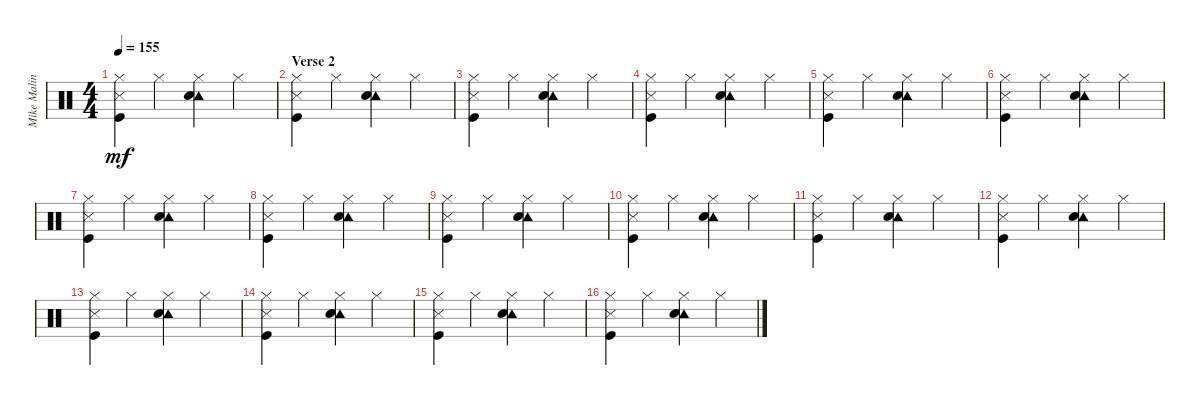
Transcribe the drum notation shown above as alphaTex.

\track ("Mike Malinin - Drums" "Mike Malin") {instrument percussion}
\staff {score}
\articulation defaults
\ts (4 4)
\tempo 155
\clef neutral
\ks c
("Hi-Hat (closed)" "Metronome (hit)" "Kick (hit)").4{dy mf} "Hi-Hat (closed)".4 ("Tambourine (hit)" "Hi-Hat (closed)" "Electric Snare (hit)").4 "Hi-Hat (closed)".4 |
\section ("" "Verse 2")
("Hi-Hat (closed)" "Metronome (hit)" "Kick (hit)").4 "Hi-Hat (closed)".4 ("Tambourine (hit)" "Hi-Hat (closed)" "Electric Snare (hit)").4 "Hi-Hat (closed)".4 |
("Hi-Hat (closed)" "Metronome (hit)" "Kick (hit)").4 "Hi-Hat (closed)".4 ("Tambourine (hit)" "Hi-Hat (closed)" "Electric Snare (hit)").4 "Hi-Hat (closed)".4 |
("Hi-Hat (closed)" "Metronome (hit)" "Kick (hit)").4 "Hi-Hat (closed)".4 ("Tambourine (hit)" "Hi-Hat (closed)" "Electric Snare (hit)").4 "Hi-Hat (closed)".4 |
("Hi-Hat (closed)" "Metronome (hit)" "Kick (hit)").4 "Hi-Hat (closed)".4 ("Tambourine (hit)" "Hi-Hat (closed)" "Electric Snare (hit)").4 "Hi-Hat (closed)".4 |
("Hi-Hat (closed)" "Metronome (hit)" "Kick (hit)").4 "Hi-Hat (closed)".4 ("Tambourine (hit)" "Hi-Hat (closed)" "Electric Snare (hit)").4 "Hi-Hat (closed)".4 |
("Hi-Hat (closed)" "Metronome (hit)" "Kick (hit)").4 "Hi-Hat (closed)".4 ("Tambourine (hit)" "Hi-Hat (closed)" "Electric Snare (hit)").4 "Hi-Hat (closed)".4 |
("Hi-Hat (closed)" "Metronome (hit)" "Kick (hit)").4 "Hi-Hat (closed)".4 ("Tambourine (hit)" "Hi-Hat (closed)" "Electric Snare (hit)").4 "Hi-Hat (closed)".4 |
("Hi-Hat (closed)" "Metronome (hit)" "Kick (hit)").4 "Hi-Hat (closed)".4 ("Tambourine (hit)" "Hi-Hat (closed)" "Electric Snare (hit)").4 "Hi-Hat (closed)".4 |
("Hi-Hat (closed)" "Metronome (hit)" "Kick (hit)").4 "Hi-Hat (closed)".4 ("Tambourine (hit)" "Hi-Hat (closed)" "Electric Snare (hit)").4 "Hi-Hat (closed)".4 |
("Hi-Hat (closed)" "Metronome (hit)" "Kick (hit)").4 "Hi-Hat (closed)".4 ("Tambourine (hit)" "Hi-Hat (closed)" "Electric Snare (hit)").4 "Hi-Hat (closed)".4 |
("Hi-Hat (closed)" "Metronome (hit)" "Kick (hit)").4 "Hi-Hat (closed)".4 ("Tambourine (hit)" "Hi-Hat (closed)" "Electric Snare (hit)").4 "Hi-Hat (closed)".4 |
("Hi-Hat (closed)" "Metronome (hit)" "Kick (hit)").4 "Hi-Hat (closed)".4 ("Tambourine (hit)" "Hi-Hat (closed)" "Electric Snare (hit)").4 "Hi-Hat (closed)".4 |
("Hi-Hat (closed)" "Metronome (hit)" "Kick (hit)").4 "Hi-Hat (closed)".4 ("Tambourine (hit)" "Hi-Hat (closed)" "Electric Snare (hit)").4 "Hi-Hat (closed)".4 |
("Hi-Hat (closed)" "Metronome (hit)" "Kick (hit)").4 "Hi-Hat (closed)".4 ("Tambourine (hit)" "Hi-Hat (closed)" "Electric Snare (hit)").4 "Hi-Hat (closed)".4 |
("Hi-Hat (closed)" "Metronome (hit)" "Kick (hit)").4 "Hi-Hat (closed)".4 ("Tambourine (hit)" "Hi-Hat (closed)" "Electric Snare (hit)").4 "Hi-Hat (closed)".4
